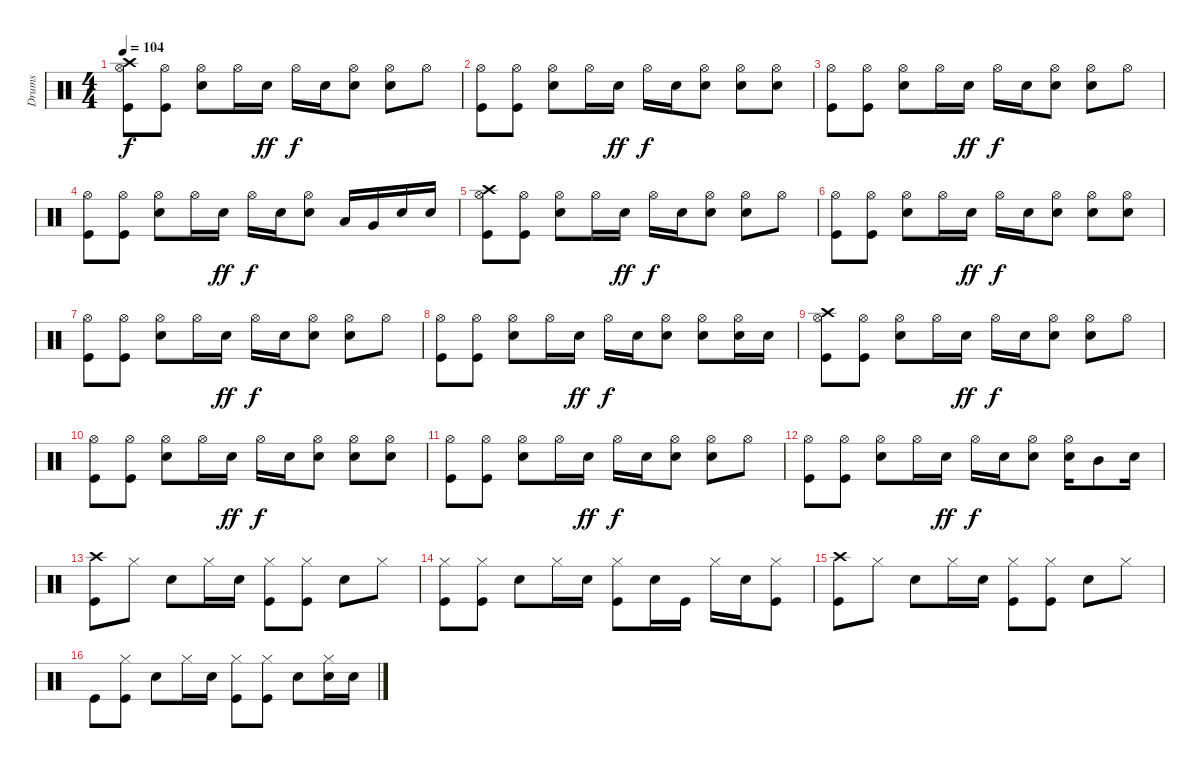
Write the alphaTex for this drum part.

\track ("Drums" "Drums") {instrument percussion}
\staff {score}
\articulation defaults
\ts (4 4)
\tempo 104
\clef neutral
\ks c
("Crash high (hit)" "Hi-Hat (open)" "Kick (hit)").8{dy f} ("Hi-Hat (open)" "Kick (hit)").8 ("Hi-Hat (open)" "Snare (hit) 2").8 "Hi-Hat (open)".16 "Snare (hit) 2".16{dy ff} "Hi-Hat (open)".16{dy f} "Snare (hit) 2".16 ("Hi-Hat (open)" "Snare (hit) 2").8 ("Hi-Hat (open)" "Snare (hit) 2").8 "Hi-Hat (open)".8 |
("Hi-Hat (open)" "Kick (hit)").8 ("Hi-Hat (open)" "Kick (hit)").8 ("Hi-Hat (open)" "Snare (hit) 2").8 "Hi-Hat (open)".16 "Snare (hit) 2".16{dy ff} "Hi-Hat (open)".16{dy f} "Snare (hit) 2".16 ("Hi-Hat (open)" "Snare (hit) 2").8 ("Hi-Hat (open)" "Snare (hit) 2").8 ("Hi-Hat (open)" "Snare (hit) 2").8 |
("Hi-Hat (open)" "Kick (hit)").8 ("Hi-Hat (open)" "Kick (hit)").8 ("Hi-Hat (open)" "Snare (hit) 2").8 "Hi-Hat (open)".16 "Snare (hit) 2".16{dy ff} "Hi-Hat (open)".16{dy f} "Snare (hit) 2".16 ("Hi-Hat (open)" "Snare (hit) 2").8 ("Hi-Hat (open)" "Snare (hit) 2").8 "Hi-Hat (open)".8 |
("Hi-Hat (open)" "Kick (hit)").8 ("Hi-Hat (open)" "Kick (hit)").8 ("Hi-Hat (open)" "Snare (hit) 2").8 "Hi-Hat (open)".16 "Snare (hit) 2".16{dy ff} "Hi-Hat (open)".16{dy f} "Snare (hit) 2".16 ("Hi-Hat (open)" "Snare (hit) 2").8 "Low Tom (hit)".16 "Very Low Tom (hit)".16 "Snare (hit) 2".16 "Snare (hit) 2".16 |
("Crash high (hit)" "Hi-Hat (open)" "Kick (hit)").8 ("Hi-Hat (open)" "Kick (hit)").8 ("Hi-Hat (open)" "Snare (hit) 2").8 "Hi-Hat (open)".16 "Snare (hit) 2".16{dy ff} "Hi-Hat (open)".16{dy f} "Snare (hit) 2".16 ("Hi-Hat (open)" "Snare (hit) 2").8 ("Hi-Hat (open)" "Snare (hit) 2").8 "Hi-Hat (open)".8 |
("Hi-Hat (open)" "Kick (hit)").8 ("Hi-Hat (open)" "Kick (hit)").8 ("Hi-Hat (open)" "Snare (hit) 2").8 "Hi-Hat (open)".16 "Snare (hit) 2".16{dy ff} "Hi-Hat (open)".16{dy f} "Snare (hit) 2".16 ("Hi-Hat (open)" "Snare (hit) 2").8 ("Hi-Hat (open)" "Snare (hit) 2").8 ("Hi-Hat (open)" "Snare (hit) 2").8 |
("Hi-Hat (open)" "Kick (hit)").8 ("Hi-Hat (open)" "Kick (hit)").8 ("Hi-Hat (open)" "Snare (hit) 2").8 "Hi-Hat (open)".16 "Snare (hit) 2".16{dy ff} "Hi-Hat (open)".16{dy f} "Snare (hit) 2".16 ("Hi-Hat (open)" "Snare (hit) 2").8 ("Hi-Hat (open)" "Snare (hit) 2").8 "Hi-Hat (open)".8 |
("Hi-Hat (open)" "Kick (hit)").8 ("Hi-Hat (open)" "Kick (hit)").8 ("Hi-Hat (open)" "Snare (hit) 2").8 "Hi-Hat (open)".16 "Snare (hit) 2".16{dy ff} "Hi-Hat (open)".16{dy f} "Snare (hit) 2".16 ("Hi-Hat (open)" "Snare (hit) 2").8 ("Hi-Hat (open)" "Snare (hit) 2").8 ("Hi-Hat (open)" "Snare (hit) 2").16 "Snare (hit) 2".16 |
("Crash high (hit)" "Hi-Hat (open)" "Kick (hit)").8 ("Hi-Hat (open)" "Kick (hit)").8 ("Hi-Hat (open)" "Snare (hit) 2").8 "Hi-Hat (open)".16 "Snare (hit) 2".16{dy ff} "Hi-Hat (open)".16{dy f} "Snare (hit) 2".16 ("Hi-Hat (open)" "Snare (hit) 2").8 ("Hi-Hat (open)" "Snare (hit) 2").8 "Hi-Hat (open)".8 |
("Hi-Hat (open)" "Kick (hit)").8 ("Hi-Hat (open)" "Kick (hit)").8 ("Hi-Hat (open)" "Snare (hit) 2").8 "Hi-Hat (open)".16 "Snare (hit) 2".16{dy ff} "Hi-Hat (open)".16{dy f} "Snare (hit) 2".16 ("Hi-Hat (open)" "Snare (hit) 2").8 ("Hi-Hat (open)" "Snare (hit) 2").8 ("Hi-Hat (open)" "Snare (hit) 2").8 |
("Hi-Hat (open)" "Kick (hit)").8 ("Hi-Hat (open)" "Kick (hit)").8 ("Hi-Hat (open)" "Snare (hit) 2").8 "Hi-Hat (open)".16 "Snare (hit) 2".16{dy ff} "Hi-Hat (open)".16{dy f} "Snare (hit) 2".16 ("Hi-Hat (open)" "Snare (hit) 2").8 ("Hi-Hat (open)" "Snare (hit) 2").8 "Hi-Hat (open)".8 |
("Hi-Hat (open)" "Kick (hit)").8 ("Hi-Hat (open)" "Kick (hit)").8 ("Hi-Hat (open)" "Snare (hit) 2").8 "Hi-Hat (open)".16 "Snare (hit) 2".16{dy ff} "Hi-Hat (open)".16{dy f} "Snare (hit) 2".16 ("Hi-Hat (open)" "Snare (hit) 2").8 ("Hi-Hat (open)" "Snare (hit) 2").16 "Mid Tom (hit)".8 "Snare (hit) 2".16 |
("Crash high (hit)" "Kick (hit)").8 "Hi-Hat (closed)".8 "Snare (hit) 2".8 "Hi-Hat (closed)".16 "Snare (hit) 2".16 ("Hi-Hat (closed)" "Kick (hit)").8 ("Hi-Hat (closed)" "Kick (hit)").8 "Snare (hit) 2".8 "Hi-Hat (closed)".8 |
("Hi-Hat (closed)" "Kick (hit)").8 ("Hi-Hat (closed)" "Kick (hit)").8 "Snare (hit) 2".8 "Hi-Hat (closed)".16 "Snare (hit) 2".16 ("Hi-Hat (closed)" "Kick (hit)").8 "Snare (hit) 2".16 "Kick (hit)".16 "Hi-Hat (closed)".16 "Snare (hit) 2".16 ("Hi-Hat (closed)" "Kick (hit)").8 |
("Crash high (hit)" "Kick (hit)").8 "Hi-Hat (closed)".8 "Snare (hit) 2".8 "Hi-Hat (closed)".16 "Snare (hit) 2".16 ("Hi-Hat (closed)" "Kick (hit)").8 ("Hi-Hat (closed)" "Kick (hit)").8 "Snare (hit) 2".8 "Hi-Hat (closed)".8 |
"Kick (hit)".8 ("Hi-Hat (closed)" "Kick (hit)").8 "Snare (hit) 2".8 "Hi-Hat (closed)".16 "Snare (hit) 2".16 ("Hi-Hat (closed)" "Kick (hit)").8 ("Hi-Hat (closed)" "Kick (hit)").8 "Snare (hit) 2".8 ("Hi-Hat (closed)" "Snare (hit) 2").16 "Snare (hit) 2".16
